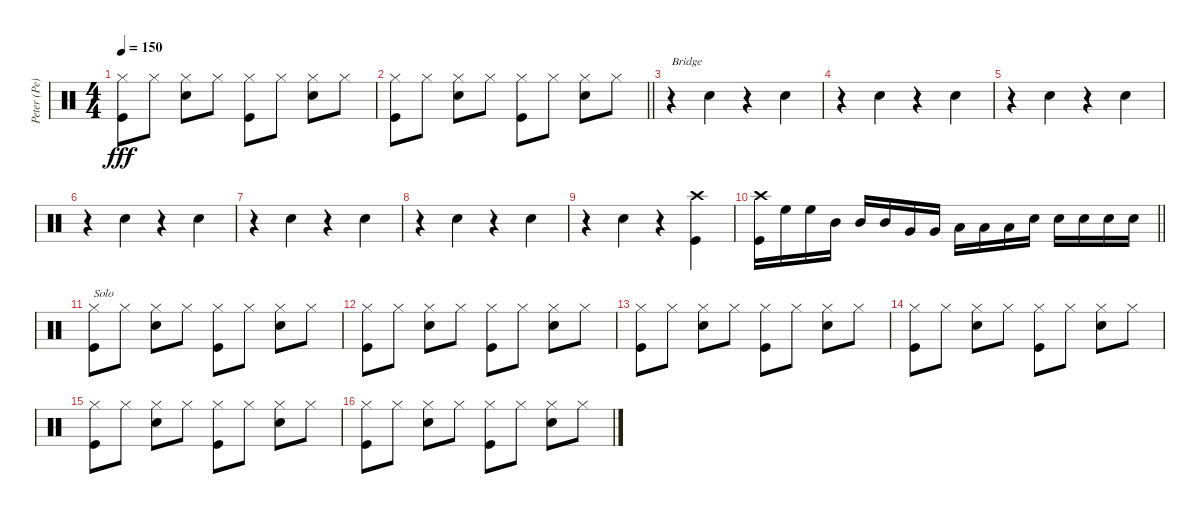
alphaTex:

\track ("Peter (Pe) Schorowsky" "Peter (Pe)") {instrument percussion}
\staff {score}
\articulation defaults
\ts (4 4)
\tempo 150
\clef neutral
\ks c
("Kick (hit)" "Hi-Hat (closed)").8{dy fff} "Hi-Hat (closed)".8 ("Electric Snare (hit)" "Hi-Hat (closed)").8 "Hi-Hat (closed)".8 ("Kick (hit)" "Hi-Hat (closed)").8 "Hi-Hat (closed)".8 ("Electric Snare (hit)" "Hi-Hat (closed)").8 "Hi-Hat (closed)".8 |
\barLineRight lightlight
("Kick (hit)" "Hi-Hat (closed)").8 "Hi-Hat (closed)".8 ("Electric Snare (hit)" "Hi-Hat (closed)").8 "Hi-Hat (closed)".8 ("Kick (hit)" "Hi-Hat (closed)").8 "Hi-Hat (closed)".8 ("Electric Snare (hit)" "Hi-Hat (closed)").8 "Hi-Hat (closed)".8 |
r.4{txt "Bridge"} "Electric Snare (hit)".4 r.4 "Electric Snare (hit)".4 |
r.4 "Electric Snare (hit)".4 r.4 "Electric Snare (hit)".4 |
r.4 "Electric Snare (hit)".4 r.4 "Electric Snare (hit)".4 |
r.4 "Electric Snare (hit)".4 r.4 "Electric Snare (hit)".4 |
r.4 "Electric Snare (hit)".4 r.4 "Electric Snare (hit)".4 |
r.4 "Electric Snare (hit)".4 r.4 "Electric Snare (hit)".4 |
r.4 "Electric Snare (hit)".4 r.4 ("Crash high (hit)" "Kick (hit)").4 |
\barLineRight lightlight
("Crash high (hit)" "Kick (hit)").16 "High Floor Tom (hit)".16 "High Floor Tom (hit)".16 "Mid Tom (hit)".16 "Mid Tom (hit)".16 "Mid Tom (hit)".16 "Very Low Tom (hit)".16 "Very Low Tom (hit)".16 "Low Floor Tom (hit)".16 "Low Floor Tom (hit)".16 "Low Floor Tom (hit)".16 "Electric Snare (hit)".16 "Electric Snare (hit)".16 "Electric Snare (hit)".16 "Electric Snare (hit)".16 "Electric Snare (hit)".16 |
("Kick (hit)" "Hi-Hat (closed)").8{txt "Solo"} "Hi-Hat (closed)".8 ("Electric Snare (hit)" "Hi-Hat (closed)").8 "Hi-Hat (closed)".8 ("Kick (hit)" "Hi-Hat (closed)").8 "Hi-Hat (closed)".8 ("Electric Snare (hit)" "Hi-Hat (closed)").8 "Hi-Hat (closed)".8 |
("Kick (hit)" "Hi-Hat (closed)").8 "Hi-Hat (closed)".8 ("Electric Snare (hit)" "Hi-Hat (closed)").8 "Hi-Hat (closed)".8 ("Kick (hit)" "Hi-Hat (closed)").8 "Hi-Hat (closed)".8 ("Electric Snare (hit)" "Hi-Hat (closed)").8 "Hi-Hat (closed)".8 |
("Kick (hit)" "Hi-Hat (closed)").8 "Hi-Hat (closed)".8 ("Electric Snare (hit)" "Hi-Hat (closed)").8 "Hi-Hat (closed)".8 ("Kick (hit)" "Hi-Hat (closed)").8 "Hi-Hat (closed)".8 ("Electric Snare (hit)" "Hi-Hat (closed)").8 "Hi-Hat (closed)".8 |
("Kick (hit)" "Hi-Hat (closed)").8 "Hi-Hat (closed)".8 ("Electric Snare (hit)" "Hi-Hat (closed)").8 "Hi-Hat (closed)".8 ("Kick (hit)" "Hi-Hat (closed)").8 "Hi-Hat (closed)".8 ("Electric Snare (hit)" "Hi-Hat (closed)").8 "Hi-Hat (closed)".8 |
("Kick (hit)" "Hi-Hat (closed)").8 "Hi-Hat (closed)".8 ("Electric Snare (hit)" "Hi-Hat (closed)").8 "Hi-Hat (closed)".8 ("Kick (hit)" "Hi-Hat (closed)").8 "Hi-Hat (closed)".8 ("Electric Snare (hit)" "Hi-Hat (closed)").8 "Hi-Hat (closed)".8 |
("Kick (hit)" "Hi-Hat (closed)").8 "Hi-Hat (closed)".8 ("Electric Snare (hit)" "Hi-Hat (closed)").8 "Hi-Hat (closed)".8 ("Kick (hit)" "Hi-Hat (closed)").8 "Hi-Hat (closed)".8 ("Electric Snare (hit)" "Hi-Hat (closed)").8 "Hi-Hat (closed)".8
